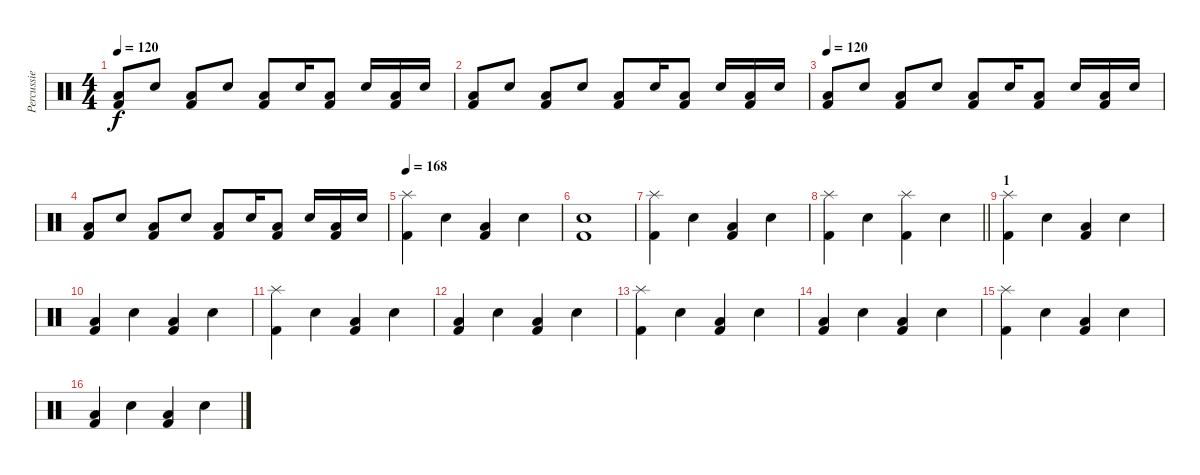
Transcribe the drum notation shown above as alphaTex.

\track ("Percussie" "Percussie") {instrument percussion}
\staff {score}
\articulation defaults
\ts (4 4)
\tempo 120
\clef neutral
\ks c
("Low Floor Tom (hit)" "Kick (hit) 2").8{dy f} "Snare (hit) 2".8 ("Low Floor Tom (hit)" "Kick (hit) 2").8 "Snare (hit) 2".8 ("Low Floor Tom (hit)" "Kick (hit) 2").8 "Snare (hit) 2".16 ("Low Floor Tom (hit)" "Kick (hit) 2").8 "Snare (hit) 2".16 ("Low Floor Tom (hit)" "Kick (hit) 2").16 "Snare (hit) 2".16 |
("Low Floor Tom (hit)" "Kick (hit) 2").8 "Snare (hit) 2".8 ("Low Floor Tom (hit)" "Kick (hit) 2").8 "Snare (hit) 2".8 ("Low Floor Tom (hit)" "Kick (hit) 2").8 "Snare (hit) 2".16 ("Low Floor Tom (hit)" "Kick (hit) 2").8 "Snare (hit) 2".16 ("Low Floor Tom (hit)" "Kick (hit) 2").16 "Snare (hit) 2".16 |
\tempo 120
("Low Floor Tom (hit)" "Kick (hit) 2").8 "Snare (hit) 2".8 ("Low Floor Tom (hit)" "Kick (hit) 2").8 "Snare (hit) 2".8 ("Low Floor Tom (hit)" "Kick (hit) 2").8 "Snare (hit) 2".16 ("Low Floor Tom (hit)" "Kick (hit) 2").8 "Snare (hit) 2".16 ("Low Floor Tom (hit)" "Kick (hit) 2").16 "Snare (hit) 2".16 |
("Low Floor Tom (hit)" "Kick (hit) 2").8 "Snare (hit) 2".8 ("Low Floor Tom (hit)" "Kick (hit) 2").8 "Snare (hit) 2".8 ("Low Floor Tom (hit)" "Kick (hit) 2").8 "Snare (hit) 2".16 ("Low Floor Tom (hit)" "Kick (hit) 2").8 "Snare (hit) 2".16 ("Low Floor Tom (hit)" "Kick (hit) 2").16 "Snare (hit) 2".16 |
\tempo 168
("Splash (hit)" "Kick (hit) 2").4 "Snare (hit) 2".4 ("Low Floor Tom (hit)" "Kick (hit) 2").4 "Snare (hit) 2".4 |
("Snare (hit) 2" "Kick (hit) 2").1 |
("Splash (hit)" "Kick (hit) 2").4 "Snare (hit) 2".4 ("Low Floor Tom (hit)" "Kick (hit) 2").4 "Snare (hit) 2".4 |
\barLineRight lightlight
("Splash (hit)" "Kick (hit) 2").4 "Snare (hit) 2".4 ("Splash (hit)" "Kick (hit) 2").4 "Snare (hit) 2".4 |
\section ("" "1")
("Splash (hit)" "Kick (hit) 2").4 "Snare (hit) 2".4 ("Low Floor Tom (hit)" "Kick (hit) 2").4 "Snare (hit) 2".4 |
("Low Floor Tom (hit)" "Kick (hit) 2").4 "Snare (hit) 2".4 ("Low Floor Tom (hit)" "Kick (hit) 2").4 "Snare (hit) 2".4 |
("Splash (hit)" "Kick (hit) 2").4 "Snare (hit) 2".4 ("Low Floor Tom (hit)" "Kick (hit) 2").4 "Snare (hit) 2".4 |
("Low Floor Tom (hit)" "Kick (hit) 2").4 "Snare (hit) 2".4 ("Low Floor Tom (hit)" "Kick (hit) 2").4 "Snare (hit) 2".4 |
("Splash (hit)" "Kick (hit) 2").4 "Snare (hit) 2".4 ("Low Floor Tom (hit)" "Kick (hit) 2").4 "Snare (hit) 2".4 |
("Low Floor Tom (hit)" "Kick (hit) 2").4 "Snare (hit) 2".4 ("Low Floor Tom (hit)" "Kick (hit) 2").4 "Snare (hit) 2".4 |
("Splash (hit)" "Kick (hit) 2").4 "Snare (hit) 2".4 ("Low Floor Tom (hit)" "Kick (hit) 2").4 "Snare (hit) 2".4 |
("Low Floor Tom (hit)" "Kick (hit) 2").4 "Snare (hit) 2".4 ("Low Floor Tom (hit)" "Kick (hit) 2").4 "Snare (hit) 2".4
